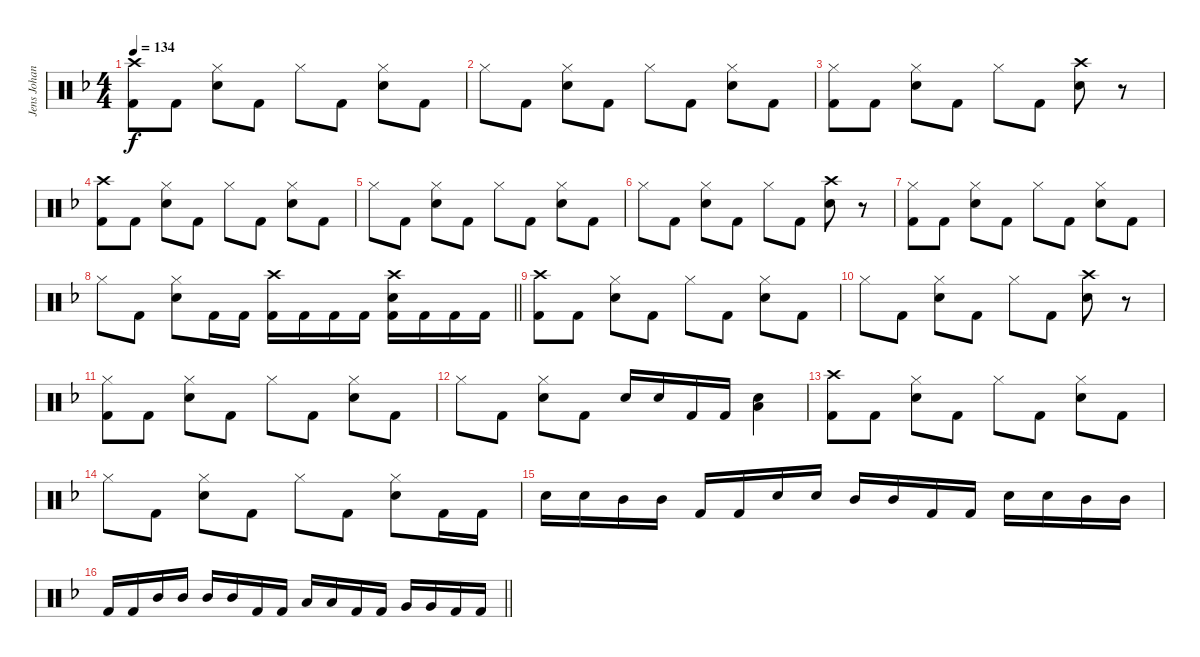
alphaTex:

\track ("Jens Johansson" "Jens Johan") {instrument percussion}
\staff {score}
\articulation defaults
\ts (4 4)
\tempo 134
\clef neutral
\ks f
("Crash high (hit)" "Kick (hit) 2").8{dy f} "Kick (hit) 2".8 ("Electric Snare (hit)" "Hi-Hat (closed)").8 "Kick (hit) 2".8 "Hi-Hat (closed)".8 "Kick (hit) 2".8 ("Electric Snare (hit)" "Hi-Hat (closed)").8 "Kick (hit) 2".8 |
"Hi-Hat (closed)".8 "Kick (hit) 2".8 ("Electric Snare (hit)" "Hi-Hat (closed)").8 "Kick (hit) 2".8 "Hi-Hat (closed)".8 "Kick (hit) 2".8 ("Electric Snare (hit)" "Hi-Hat (closed)").8 "Kick (hit) 2".8 |
("Hi-Hat (closed)" "Kick (hit) 2").8 "Kick (hit) 2".8 ("Electric Snare (hit)" "Hi-Hat (closed)").8 "Kick (hit) 2".8 "Hi-Hat (closed)".8 "Kick (hit) 2".8 ("Crash high (hit)" "Electric Snare (hit)").8 r.8 |
("Crash high (hit)" "Kick (hit) 2").8 "Kick (hit) 2".8 ("Electric Snare (hit)" "Hi-Hat (closed)").8 "Kick (hit) 2".8 "Hi-Hat (closed)".8 "Kick (hit) 2".8 ("Electric Snare (hit)" "Hi-Hat (closed)").8 "Kick (hit) 2".8 |
"Hi-Hat (closed)".8 "Kick (hit) 2".8 ("Electric Snare (hit)" "Hi-Hat (closed)").8 "Kick (hit) 2".8 "Hi-Hat (closed)".8 "Kick (hit) 2".8 ("Electric Snare (hit)" "Hi-Hat (closed)").8 "Kick (hit) 2".8 |
"Hi-Hat (closed)".8 "Kick (hit) 2".8 ("Electric Snare (hit)" "Hi-Hat (closed)").8 "Kick (hit) 2".8 "Hi-Hat (closed)".8 "Kick (hit) 2".8 ("Crash high (hit)" "Electric Snare (hit)").8 r.8 |
("Hi-Hat (closed)" "Kick (hit) 2").8 "Kick (hit) 2".8 ("Electric Snare (hit)" "Hi-Hat (closed)").8 "Kick (hit) 2".8 "Hi-Hat (closed)".8 "Kick (hit) 2".8 ("Electric Snare (hit)" "Hi-Hat (closed)").8 "Kick (hit) 2".8 |
\barLineRight lightlight "Hi-Hat (closed)".8 "Kick (hit) 2".8
("Electric Snare (hit)" "Hi-Hat (closed)").8 "Kick (hit) 2".16 "Kick (hit) 2".16 ("Crash high (hit)" "Kick (hit) 2").16 "Kick (hit) 2".16 "Kick (hit) 2".16 "Kick (hit) 2".16 ("Crash high (hit)" "Electric Snare (hit)" "Kick (hit) 2").16 "Kick (hit) 2".16 "Kick (hit) 2".16 "Kick (hit) 2".16 |
("Crash high (hit)" "Kick (hit) 2").8 "Kick (hit) 2".8 ("Electric Snare (hit)" "Hi-Hat (closed)").8 "Kick (hit) 2".8 "Hi-Hat (closed)".8 "Kick (hit) 2".8 ("Electric Snare (hit)" "Hi-Hat (closed)").8 "Kick (hit) 2".8 |
"Hi-Hat (closed)".8 "Kick (hit) 2".8 ("Electric Snare (hit)" "Hi-Hat (closed)").8 "Kick (hit) 2".8 "Hi-Hat (closed)".8 "Kick (hit) 2".8 ("Crash high (hit)" "Electric Snare (hit)").8 r.8 |
("Hi-Hat (closed)" "Kick (hit) 2").8 "Kick (hit) 2".8 ("Electric Snare (hit)" "Hi-Hat (closed)").8 "Kick (hit) 2".8 "Hi-Hat (closed)".8 "Kick (hit) 2".8 ("Electric Snare (hit)" "Hi-Hat (closed)").8 "Kick (hit) 2".8 |
"Hi-Hat (closed)".8 "Kick (hit) 2".8 ("Electric Snare (hit)" "Hi-Hat (closed)").8 "Kick (hit) 2".8 "Electric Snare (hit)".16 "Electric Snare (hit)".16 "Kick (hit) 2".16 "Kick (hit) 2".16 ("Electric Snare (hit)" "Low Tom (hit)").4 |
("Crash high (hit)" "Kick (hit) 2").8 "Kick (hit) 2".8 ("Electric Snare (hit)" "Hi-Hat (closed)").8 "Kick (hit) 2".8 "Hi-Hat (closed)".8 "Kick (hit) 2".8 ("Electric Snare (hit)" "Hi-Hat (closed)").8 "Kick (hit) 2".8 |
"Hi-Hat (closed)".8 "Kick (hit) 2".8 ("Electric Snare (hit)" "Hi-Hat (closed)").8 "Kick (hit) 2".8 "Hi-Hat (closed)".8 "Kick (hit) 2".8 ("Electric Snare (hit)" "Hi-Hat (closed)").8 "Kick (hit) 2".16 "Kick (hit) 2".16 |
"Electric Snare (hit)".16 "Electric Snare (hit)".16 "Mid Tom (hit)".16 "Mid Tom (hit)".16 "Kick (hit) 2".16 "Kick (hit) 2".16 "Electric Snare (hit)".16 "Electric Snare (hit)".16 "Mid Tom (hit)".16 "Mid Tom (hit)".16 "Kick (hit) 2".16 "Kick (hit) 2".16 "Electric Snare (hit)".16 "Electric Snare (hit)".16 "Mid Tom (hit)".16 "Mid Tom (hit)".16 |
\barLineRight lightlight "Kick (hit) 2".16 "Kick (hit) 2".16 "Mid Tom (hit)".16 "Mid Tom (hit)".16 "Mid Tom (hit)".16 "Mid Tom (hit)".16 "Kick (hit) 2".16 "Kick (hit) 2".16 "Low Tom (hit)".16 "Low Tom (hit)".16 "Kick (hit) 2".16 "Kick (hit) 2".16 "Very Low Tom (hit)".16 "Very Low Tom (hit)".16 "Kick (hit) 2".16 "Kick (hit) 2".16
